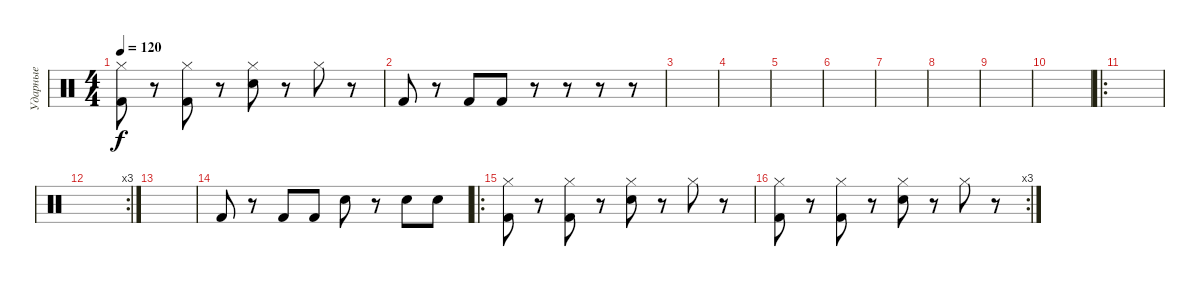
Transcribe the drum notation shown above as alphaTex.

\track ("Ударные" "Ударные") {instrument percussion}
\staff {score}
\articulation defaults
\ts (4 4)
\tempo 120
\clef neutral
\ks c
("Hi-Hat (closed)" "Kick (hit) 2").8{dy f} r.8 ("Hi-Hat (closed)" "Kick (hit) 2").8 r.8 ("Hi-Hat (closed)" "Electric Snare (hit)").8 r.8 "Hi-Hat (closed)".8 r.8 |
"Kick (hit) 2".8 r.8 "Kick (hit) 2".8 "Kick (hit) 2".8 r.8 r.8 r.8 r.8 |
|
|
|
|
|
|
|
|
\ro
|
\rc 3
|
|
"Kick (hit) 2".8 r.8 "Kick (hit) 2".8 "Kick (hit) 2".8 "Electric Snare (hit)".8 r.8 "Electric Snare (hit)".8 "Electric Snare (hit)".8 |
\ro
("Hi-Hat (closed)" "Kick (hit) 2").8 r.8 ("Hi-Hat (closed)" "Kick (hit) 2").8 r.8 ("Hi-Hat (closed)" "Electric Snare (hit)").8 r.8 "Hi-Hat (closed)".8 r.8 |
\rc 3
("Hi-Hat (closed)" "Kick (hit) 2").8 r.8 ("Hi-Hat (closed)" "Kick (hit) 2").8 r.8 ("Hi-Hat (closed)" "Electric Snare (hit)").8 r.8 "Hi-Hat (closed)".8 r.8
